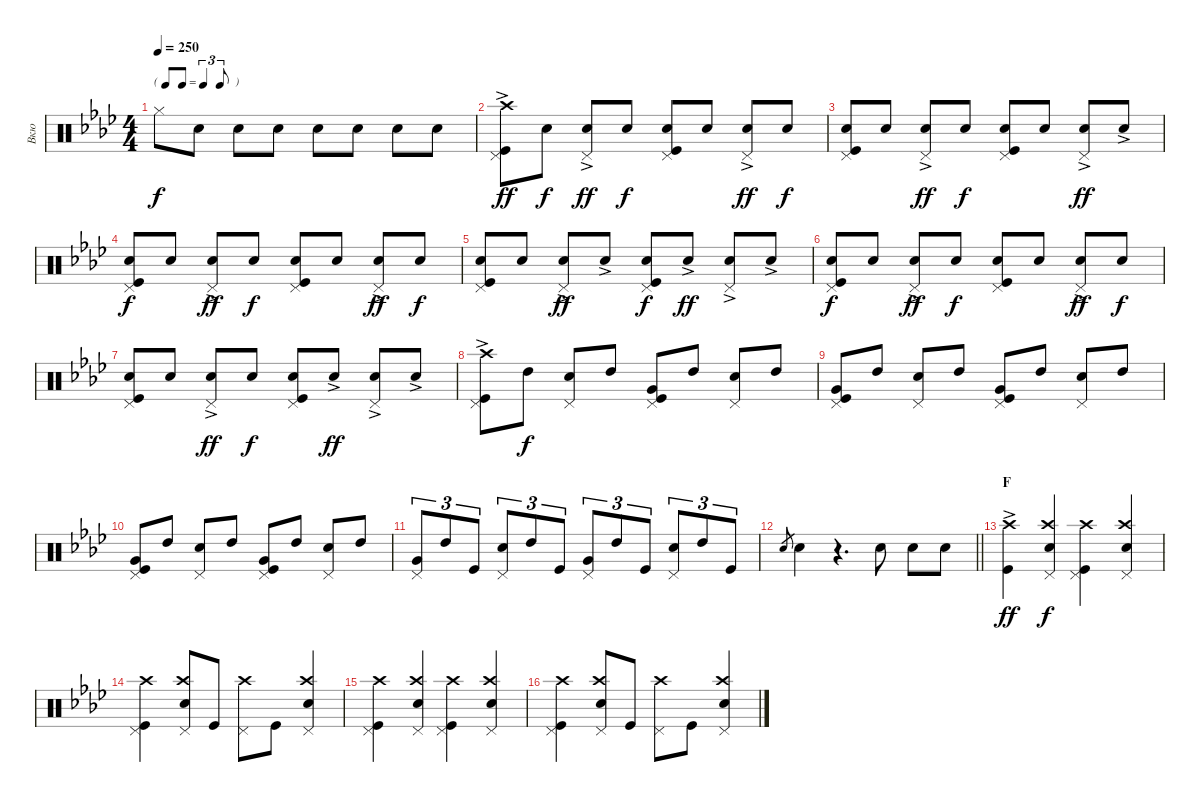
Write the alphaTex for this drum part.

\track ("Вкю" "Вкю") {instrument percussion}
\staff {score}
\articulation defaults
\ts (4 4)
\tf triplet8th
\tempo 250
\clef neutral
\ks ab "Hi-Hat (closed)"{t}.8{dy f} "Snare (hit) 2".8 "Snare (hit) 2".8 "Snare (hit) 2".8 "Snare (hit) 2".8 "Snare (hit) 2".8 "Snare (hit) 2".8 "Snare (hit) 2".8
|
("Crash high (hit)"{ac} "Kick (hit)"{ac} "Pedal Hi-Hat (hit)"{ac}).8{dy ff} "Snare (hit) 2".8{dy f} ("Snare (hit) 2"{ac} "Pedal Hi-Hat (hit)"{ac}).8{dy ff} "Snare (hit) 2".8{dy f} ("Snare (hit) 2" "Kick (hit)" "Pedal Hi-Hat (hit)").8 "Snare (hit) 2".8 ("Snare (hit) 2"{ac} "Pedal Hi-Hat (hit)"{ac}).8{dy ff} "Snare (hit) 2".8{dy f} |
("Snare (hit) 2" "Kick (hit)" "Pedal Hi-Hat (hit)").8 "Snare (hit) 2".8 ("Snare (hit) 2"{ac} "Pedal Hi-Hat (hit)"{ac}).8{dy ff} "Snare (hit) 2".8{dy f} ("Snare (hit) 2" "Kick (hit)" "Pedal Hi-Hat (hit)").8 "Snare (hit) 2".8 ("Snare (hit) 2"{ac} "Pedal Hi-Hat (hit)"{ac}).8{dy ff} "Snare (hit) 2"{ac}.8 |
("Snare (hit) 2" "Kick (hit)" "Pedal Hi-Hat (hit)").8{dy f} "Snare (hit) 2".8 ("Snare (hit) 2"{ac} "Pedal Hi-Hat (hit)"{ac}).8{dy ff} "Snare (hit) 2".8{dy f} ("Snare (hit) 2" "Kick (hit)" "Pedal Hi-Hat (hit)").8 "Snare (hit) 2".8 ("Snare (hit) 2"{ac} "Pedal Hi-Hat (hit)"{ac}).8{dy ff} "Snare (hit) 2".8{dy f} |
("Snare (hit) 2" "Kick (hit)" "Pedal Hi-Hat (hit)").8 "Snare (hit) 2".8 ("Snare (hit) 2"{ac} "Pedal Hi-Hat (hit)"{ac}).8{dy ff} "Snare (hit) 2"{ac}.8 ("Snare (hit) 2" "Kick (hit)" "Pedal Hi-Hat (hit)").8{dy f} "Snare (hit) 2"{ac}.8{dy ff} ("Snare (hit) 2"{ac} "Pedal Hi-Hat (hit)"{ac}).8 "Snare (hit) 2"{ac}.8 |
("Snare (hit) 2" "Kick (hit)" "Pedal Hi-Hat (hit)").8{dy f} "Snare (hit) 2".8 ("Snare (hit) 2"{ac} "Pedal Hi-Hat (hit)"{ac}).8{dy ff} "Snare (hit) 2".8{dy f} ("Snare (hit) 2" "Kick (hit)" "Pedal Hi-Hat (hit)").8 "Snare (hit) 2".8 ("Snare (hit) 2"{ac} "Pedal Hi-Hat (hit)"{ac}).8{dy ff} "Snare (hit) 2".8{dy f} |
("Snare (hit) 2" "Kick (hit)" "Pedal Hi-Hat (hit)").8 "Snare (hit) 2".8 ("Snare (hit) 2"{ac} "Pedal Hi-Hat (hit)"{ac}).8{dy ff} "Snare (hit) 2".8{dy f} ("Snare (hit) 2" "Kick (hit)" "Pedal Hi-Hat (hit)").8 "Snare (hit) 2"{ac}.8{dy ff} ("Snare (hit) 2"{ac} "Pedal Hi-Hat (hit)"{ac}).8 "Snare (hit) 2"{ac}.8 |
("Crash high (hit)"{ac} "Kick (hit)"{ac} "Pedal Hi-Hat (hit)"{ac}).8 "High Tom (hit)".8{dy f} ("Snare (hit) 2" "Pedal Hi-Hat (hit)").8 "High Tom (hit)".8 ("Very Low Tom (hit)" "Kick (hit)" "Pedal Hi-Hat (hit)").8 "High Tom (hit)".8 ("Snare (hit) 2" "Pedal Hi-Hat (hit)").8 "High Tom (hit)".8 |
("Very Low Tom (hit)" "Kick (hit)" "Pedal Hi-Hat (hit)").8 "High Tom (hit)".8 ("Snare (hit) 2" "Pedal Hi-Hat (hit)").8 "High Tom (hit)".8 ("Very Low Tom (hit)" "Kick (hit)" "Pedal Hi-Hat (hit)").8 "High Tom (hit)".8 ("Snare (hit) 2" "Pedal Hi-Hat (hit)").8 "High Tom (hit)".8 |
("Very Low Tom (hit)" "Kick (hit)" "Pedal Hi-Hat (hit)").8 "High Tom (hit)".8 ("Snare (hit) 2" "Pedal Hi-Hat (hit)").8 "High Tom (hit)".8 ("Very Low Tom (hit)" "Kick (hit)" "Pedal Hi-Hat (hit)").8 "High Tom (hit)".8 ("Snare (hit) 2" "Pedal Hi-Hat (hit)").8 "High Tom (hit)".8 |
("Very Low Tom (hit)" "Pedal Hi-Hat (hit)").8{tu (3 2)} "High Tom (hit)".8{tu (3 2)} "Kick (hit)".8{tu (3 2)} ("Snare (hit) 2" "Pedal Hi-Hat (hit)").8{tu (3 2)} "High Tom (hit)".8{tu (3 2)} "Kick (hit)".8{tu (3 2)} ("Very Low Tom (hit)" "Pedal Hi-Hat (hit)").8{tu (3 2)} "High Tom (hit)".8{tu (3 2)} "Kick (hit)".8{tu (3 2)} ("Snare (hit) 2" "Pedal Hi-Hat (hit)").8{tu (3 2)} "High Tom (hit)".8{tu (3 2)} "Kick (hit)".8{tu (3 2)} |
\barLineRight lightlight "Snare (hit) 2".8{gr} "Snare (hit) 2".4
r.4{d} "Snare (hit) 2".8 "Snare (hit) 2".8 "Snare (hit) 2".8 |
\section ("" "F")
("Crash high (hit)"{ac} "Kick (hit)"{ac}).4{dy ff} ("Crash high (hit)" "Snare (hit) 2" "Pedal Hi-Hat (hit)").4{dy f} ("Crash high (hit)" "Kick (hit)" "Pedal Hi-Hat (hit)").4 ("Crash high (hit)" "Snare (hit) 2" "Pedal Hi-Hat (hit)").4 |
("Crash high (hit)" "Kick (hit)" "Pedal Hi-Hat (hit)").4 ("Crash high (hit)" "Snare (hit) 2" "Pedal Hi-Hat (hit)").8 "Kick (hit)".8 ("Crash high (hit)" "Pedal Hi-Hat (hit)").8 "Kick (hit)".8 ("Crash high (hit)" "Snare (hit) 2" "Pedal Hi-Hat (hit)").4 |
("Crash high (hit)" "Kick (hit)" "Pedal Hi-Hat (hit)").4 ("Crash high (hit)" "Snare (hit) 2" "Pedal Hi-Hat (hit)").4 ("Crash high (hit)" "Kick (hit)" "Pedal Hi-Hat (hit)").4 ("Crash high (hit)" "Snare (hit) 2" "Pedal Hi-Hat (hit)").4 |
("Crash high (hit)" "Kick (hit)" "Pedal Hi-Hat (hit)").4 ("Crash high (hit)" "Snare (hit) 2" "Pedal Hi-Hat (hit)").8 "Kick (hit)".8 ("Crash high (hit)" "Pedal Hi-Hat (hit)").8 "Kick (hit)".8 ("Crash high (hit)" "Snare (hit) 2" "Pedal Hi-Hat (hit)").4
